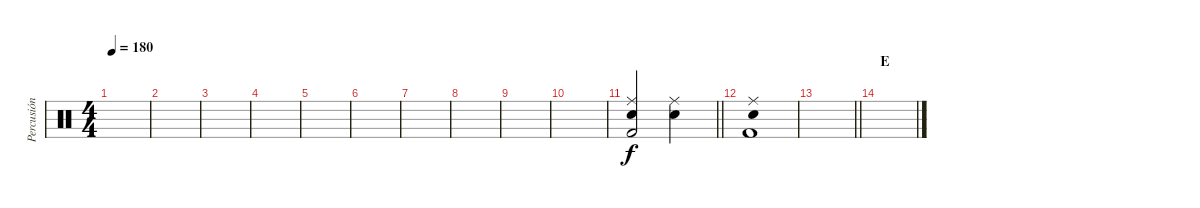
\track ("Percusión" "Percusión") {instrument percussion}
\staff {score}
\articulation defaults
\ts (4 4)
\tempo 180
\clef neutral
\ks c
|
|
|
|
|
|
|
|
|
|
\barLineRight lightlight
("Metronome (bell)" "Ride (middle)" "Kick (hit) 2").2 ("Metronome (bell)" "Ride (middle)").2 |
("Metronome (bell)" "Ride (middle)" "Kick (hit) 2").1 |
\barLineRight lightlight
|
\section ("" "E")
